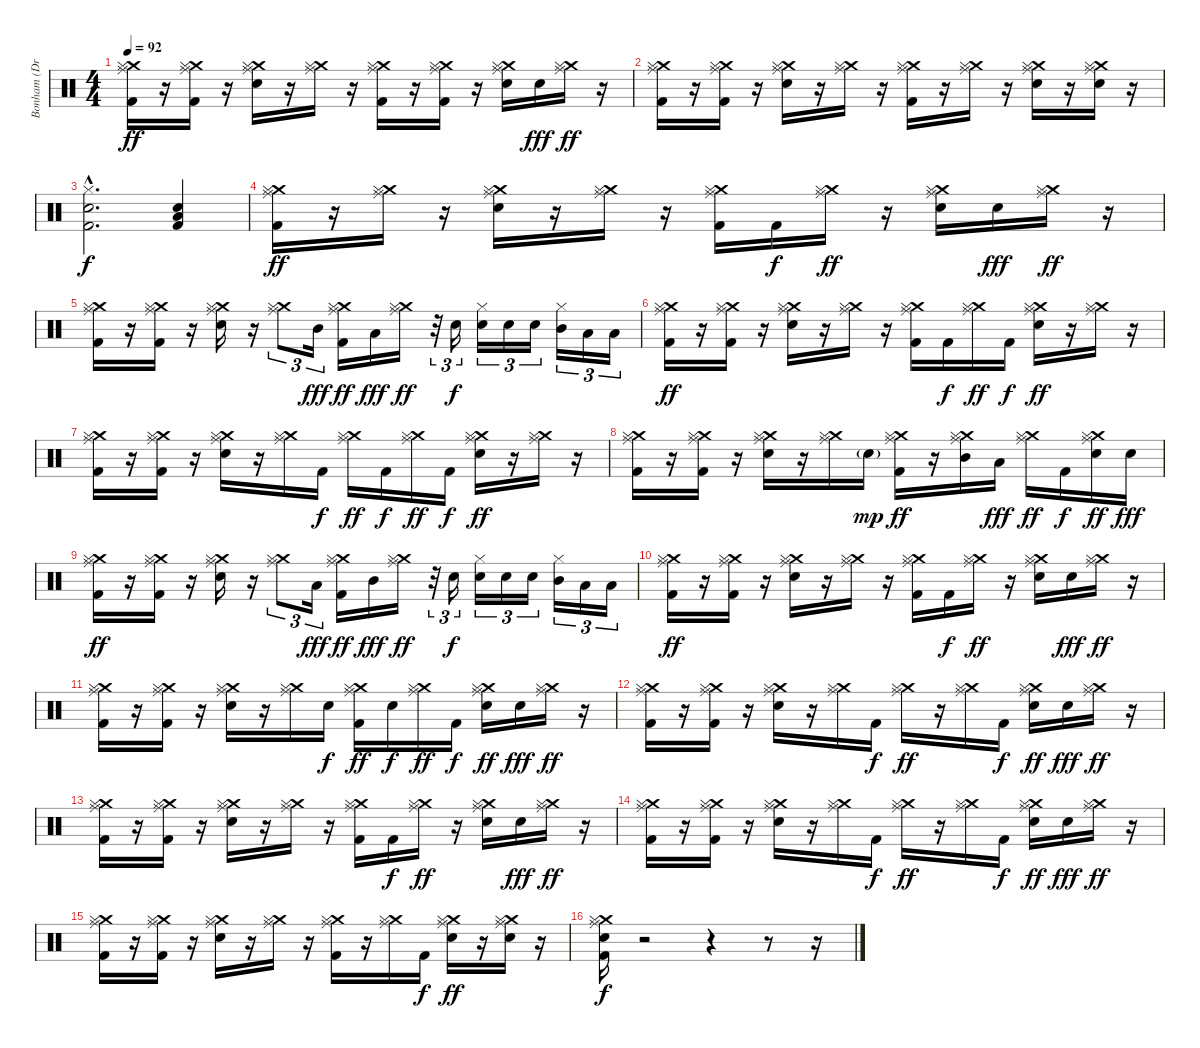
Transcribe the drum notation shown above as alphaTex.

\track ("Bonham (Drums)" "Bonham (Dr") {instrument percussion}
\staff {score}
\articulation defaults
\ts (4 4)
\tempo 92
\clef neutral
\ks c
("Crash medium (hit)" "Hi-Hat (closed)" "Ride (middle)" "Kick (hit) 2").16{dy ff} r.16 ("Crash medium (hit)" "Hi-Hat (closed)" "Ride (middle)" "Kick (hit) 2").16 r.16 ("Crash medium (hit)" "Hi-Hat (closed)" "Electric Snare (hit)" "Ride (middle)").16 r.16 ("Crash medium (hit)" "Hi-Hat (closed)" "Ride (middle)").16 r.16 ("Crash medium (hit)" "Hi-Hat (closed)" "Ride (middle)" "Kick (hit) 2").16 r.16 ("Crash medium (hit)" "Hi-Hat (closed)" "Ride (middle)" "Kick (hit) 2").16 r.16 ("Crash medium (hit)" "Hi-Hat (closed)" "Electric Snare (hit)" "Ride (middle)").16 "Electric Snare (hit)".16{dy fff} ("Crash medium (hit)" "Hi-Hat (closed)" "Ride (middle)").16{dy ff} r.16 |
("Crash medium (hit)" "Hi-Hat (closed)" "Ride (middle)" "Kick (hit) 2").16 r.16 ("Crash medium (hit)" "Hi-Hat (closed)" "Ride (middle)" "Kick (hit) 2").16 r.16 ("Crash medium (hit)" "Hi-Hat (closed)" "Electric Snare (hit)" "Ride (middle)").16 r.16 ("Crash medium (hit)" "Hi-Hat (closed)" "Ride (middle)").16 r.16 ("Crash medium (hit)" "Hi-Hat (closed)" "Ride (middle)" "Kick (hit) 2").16 r.16 ("Crash medium (hit)" "Hi-Hat (closed)" "Ride (middle)").16 r.16 ("Crash medium (hit)" "Hi-Hat (closed)" "Electric Snare (hit)" "Ride (middle)").16 r.16 ("Crash medium (hit)" "Hi-Hat (closed)" "Electric Snare (hit)" "Ride (middle)").16 r.16 |
("Hi-Hat (closed)"{hac} "Electric Snare (hit)"{hac} "Kick (hit) 2"{hac}).2{d dy f} ("Electric Snare (hit)" "Low Tom (hit)" "Kick (hit) 2").4 |
("Crash medium (hit)" "Hi-Hat (closed)" "Ride (middle)" "Kick (hit) 2").16{dy ff} r.16 ("Crash medium (hit)" "Hi-Hat (closed)" "Ride (middle)").16 r.16 ("Crash medium (hit)" "Hi-Hat (closed)" "Electric Snare (hit)" "Ride (middle)").16 r.16 ("Crash medium (hit)" "Hi-Hat (closed)" "Ride (middle)").16 r.16 ("Crash medium (hit)" "Hi-Hat (closed)" "Ride (middle)" "Kick (hit) 2").16 "Kick (hit) 2".16{dy f} ("Crash medium (hit)" "Hi-Hat (closed)" "Ride (middle)").16{dy ff} r.16 ("Crash medium (hit)" "Hi-Hat (closed)" "Electric Snare (hit)" "Ride (middle)").16 "Electric Snare (hit)".16{dy fff} ("Crash medium (hit)" "Hi-Hat (closed)" "Ride (middle)").16{dy ff} r.16 |
("Crash medium (hit)" "Hi-Hat (closed)" "Ride (middle)" "Kick (hit) 2").16 r.16 ("Crash medium (hit)" "Hi-Hat (closed)" "Ride (middle)" "Kick (hit) 2").16 r.16 ("Crash medium (hit)" "Hi-Hat (closed)" "Electric Snare (hit)" "Ride (middle)").16 r.16 ("Crash medium (hit)" "Hi-Hat (closed)" "Ride (middle)").8{tu (3 2)} "Mid Tom (hit)".16{tu (3 2) dy fff} ("Crash medium (hit)" "Hi-Hat (closed)" "Ride (middle)" "Kick (hit) 2").16{dy ff} "Low Tom (hit)".16{dy fff} ("Crash medium (hit)" "Hi-Hat (closed)" "Ride (middle)").16{dy ff} r.32{tu (3 2)} "Electric Snare (hit)".16{tu (3 2) dy f} ("Hi-Hat (closed)" "Electric Snare (hit)").16{tu (3 2)} "Electric Snare (hit)".16{tu (3 2)} "Electric Snare (hit)".16{tu (3 2)} ("Hi-Hat (closed)" "Mid Tom (hit)").16{tu (3 2)} "Low Tom (hit)".16{tu (3 2)} "Low Floor Tom (hit)".16{tu (3 2)} |
("Crash medium (hit)" "Hi-Hat (closed)" "Ride (middle)" "Kick (hit) 2").16{dy ff} r.16 ("Crash medium (hit)" "Hi-Hat (closed)" "Ride (middle)" "Kick (hit) 2").16 r.16 ("Crash medium (hit)" "Hi-Hat (closed)" "Electric Snare (hit)" "Ride (middle)").16 r.16 ("Crash medium (hit)" "Hi-Hat (closed)" "Ride (middle)").16 r.16 ("Crash medium (hit)" "Hi-Hat (closed)" "Ride (middle)" "Kick (hit) 2").16 "Kick (hit) 2".16{dy f} ("Crash medium (hit)" "Hi-Hat (closed)" "Ride (middle)").16{dy ff} "Kick (hit) 2".16{dy f} ("Crash medium (hit)" "Hi-Hat (closed)" "Electric Snare (hit)" "Ride (middle)").16{dy ff} r.16 ("Crash medium (hit)" "Hi-Hat (closed)" "Ride (middle)").16 r.16 |
("Crash medium (hit)" "Hi-Hat (closed)" "Ride (middle)" "Kick (hit) 2").16 r.16 ("Crash medium (hit)" "Hi-Hat (closed)" "Ride (middle)" "Kick (hit) 2").16 r.16 ("Crash medium (hit)" "Hi-Hat (closed)" "Electric Snare (hit)" "Ride (middle)").16 r.16 ("Crash medium (hit)" "Hi-Hat (closed)" "Ride (middle)").16 "Kick (hit) 2".16{dy f} ("Crash medium (hit)" "Hi-Hat (closed)" "Ride (middle)").16{dy ff} "Kick (hit) 2".16{dy f} ("Crash medium (hit)" "Hi-Hat (closed)" "Ride (middle)").16{dy ff} "Kick (hit) 2".16{dy f} ("Crash medium (hit)" "Hi-Hat (closed)" "Electric Snare (hit)" "Ride (middle)").16{dy ff} r.16 ("Crash medium (hit)" "Hi-Hat (closed)" "Ride (middle)").16 r.16 |
("Crash medium (hit)" "Hi-Hat (closed)" "Ride (middle)" "Kick (hit) 2").16 r.16 ("Crash medium (hit)" "Hi-Hat (closed)" "Ride (middle)" "Kick (hit) 2").16 r.16 ("Crash medium (hit)" "Hi-Hat (closed)" "Electric Snare (hit)" "Ride (middle)").16 r.16 ("Crash medium (hit)" "Hi-Hat (closed)" "Ride (middle)").16 "Electric Snare (hit)"{g}.16{dy mp} ("Crash medium (hit)" "Hi-Hat (closed)" "Ride (middle)" "Kick (hit) 2").16{dy ff} r.16 ("Crash medium (hit)" "Hi-Hat (closed)" "Mid Tom (hit)" "Ride (middle)").16 "Low Tom (hit)".16{dy fff} ("Crash medium (hit)" "Hi-Hat (closed)" "Ride (middle)").16{dy ff} "Kick (hit) 2".16{dy f} ("Crash medium (hit)" "Hi-Hat (closed)" "Electric Snare (hit)" "Ride (middle)").16{dy ff} "Electric Snare (hit)".16{dy fff} |
("Crash medium (hit)" "Hi-Hat (closed)" "Ride (middle)" "Kick (hit) 2").16{dy ff} r.16 ("Crash medium (hit)" "Hi-Hat (closed)" "Ride (middle)" "Kick (hit) 2").16 r.16 ("Crash medium (hit)" "Hi-Hat (closed)" "Electric Snare (hit)" "Ride (middle)").16 r.16 ("Crash medium (hit)" "Hi-Hat (closed)" "Ride (middle)").8{tu (3 2)} "Low Tom (hit)".16{tu (3 2) dy fff} ("Crash medium (hit)" "Hi-Hat (closed)" "Ride (middle)" "Kick (hit) 2").16{dy ff} "Mid Tom (hit)".16{dy fff} ("Crash medium (hit)" "Hi-Hat (closed)" "Ride (middle)").16{dy ff} r.32{tu (3 2)} "Electric Snare (hit)".16{tu (3 2) dy f} ("Hi-Hat (closed)" "Electric Snare (hit)").16{tu (3 2)} "Electric Snare (hit)".16{tu (3 2)} "Electric Snare (hit)".16{tu (3 2)} ("Hi-Hat (closed)" "Mid Tom (hit)").16{tu (3 2)} "Low Tom (hit)".16{tu (3 2)} "Low Floor Tom (hit)".16{tu (3 2)} |
("Crash medium (hit)" "Hi-Hat (closed)" "Ride (middle)" "Kick (hit) 2").16{dy ff} r.16 ("Crash medium (hit)" "Hi-Hat (closed)" "Ride (middle)" "Kick (hit) 2").16 r.16 ("Crash medium (hit)" "Hi-Hat (closed)" "Electric Snare (hit)" "Ride (middle)").16 r.16 ("Crash medium (hit)" "Hi-Hat (closed)" "Ride (middle)").16 r.16 ("Crash medium (hit)" "Hi-Hat (closed)" "Ride (middle)" "Kick (hit) 2").16 "Kick (hit) 2".16{dy f} ("Crash medium (hit)" "Hi-Hat (closed)" "Ride (middle)").16{dy ff} r.16 ("Crash medium (hit)" "Hi-Hat (closed)" "Electric Snare (hit)" "Ride (middle)").16 "Electric Snare (hit)".16{dy fff} ("Crash medium (hit)" "Hi-Hat (closed)" "Ride (middle)").16{dy ff} r.16 |
("Crash medium (hit)" "Hi-Hat (closed)" "Ride (middle)" "Kick (hit) 2").16 r.16 ("Crash medium (hit)" "Hi-Hat (closed)" "Ride (middle)" "Kick (hit) 2").16 r.16 ("Crash medium (hit)" "Hi-Hat (closed)" "Electric Snare (hit)" "Ride (middle)").16 r.16 ("Crash medium (hit)" "Hi-Hat (closed)" "Ride (middle)").16 "Electric Snare (hit)".16{dy f} ("Crash medium (hit)" "Hi-Hat (closed)" "Ride (middle)" "Kick (hit) 2").16{dy ff} "Electric Snare (hit)".16{dy f} ("Crash medium (hit)" "Hi-Hat (closed)" "Ride (middle)").16{dy ff} "Kick (hit) 2".16{dy f} ("Crash medium (hit)" "Hi-Hat (closed)" "Electric Snare (hit)" "Ride (middle)").16{dy ff} "Electric Snare (hit)".16{dy fff} ("Crash medium (hit)" "Hi-Hat (closed)" "Ride (middle)").16{dy ff} r.16 |
("Crash medium (hit)" "Hi-Hat (closed)" "Ride (middle)" "Kick (hit) 2").16 r.16 ("Crash medium (hit)" "Hi-Hat (closed)" "Ride (middle)" "Kick (hit) 2").16 r.16 ("Crash medium (hit)" "Hi-Hat (closed)" "Electric Snare (hit)" "Ride (middle)").16 r.16 ("Crash medium (hit)" "Hi-Hat (closed)" "Ride (middle)").16 "Kick (hit) 2".16{dy f} ("Crash medium (hit)" "Hi-Hat (closed)" "Ride (middle)").16{dy ff} r.16 ("Crash medium (hit)" "Hi-Hat (closed)" "Ride (middle)").16 "Kick (hit) 2".16{dy f} ("Crash medium (hit)" "Hi-Hat (closed)" "Electric Snare (hit)" "Ride (middle)").16{dy ff} "Electric Snare (hit)".16{dy fff} ("Crash medium (hit)" "Hi-Hat (closed)" "Ride (middle)").16{dy ff} r.16 |
("Crash medium (hit)" "Hi-Hat (closed)" "Ride (middle)" "Kick (hit) 2").16 r.16 ("Crash medium (hit)" "Hi-Hat (closed)" "Ride (middle)" "Kick (hit) 2").16 r.16 ("Crash medium (hit)" "Hi-Hat (closed)" "Electric Snare (hit)" "Ride (middle)").16 r.16 ("Crash medium (hit)" "Hi-Hat (closed)" "Ride (middle)").16 r.16 ("Crash medium (hit)" "Hi-Hat (closed)" "Ride (middle)" "Kick (hit) 2").16 "Kick (hit) 2".16{dy f} ("Crash medium (hit)" "Hi-Hat (closed)" "Ride (middle)").16{dy ff} r.16 ("Crash medium (hit)" "Hi-Hat (closed)" "Electric Snare (hit)" "Ride (middle)").16 "Electric Snare (hit)".16{dy fff} ("Crash medium (hit)" "Hi-Hat (closed)" "Ride (middle)").16{dy ff} r.16 |
("Crash medium (hit)" "Hi-Hat (closed)" "Ride (middle)" "Kick (hit) 2").16 r.16 ("Crash medium (hit)" "Hi-Hat (closed)" "Ride (middle)" "Kick (hit) 2").16 r.16 ("Crash medium (hit)" "Hi-Hat (closed)" "Electric Snare (hit)" "Ride (middle)").16 r.16 ("Crash medium (hit)" "Hi-Hat (closed)" "Ride (middle)").16 "Kick (hit) 2".16{dy f} ("Crash medium (hit)" "Hi-Hat (closed)" "Ride (middle)").16{dy ff} r.16 ("Crash medium (hit)" "Hi-Hat (closed)" "Ride (middle)").16 "Kick (hit) 2".16{dy f} ("Crash medium (hit)" "Hi-Hat (closed)" "Electric Snare (hit)" "Ride (middle)").16{dy ff} "Electric Snare (hit)".16{dy fff} ("Crash medium (hit)" "Hi-Hat (closed)" "Ride (middle)").16{dy ff} r.16 |
("Crash medium (hit)" "Hi-Hat (closed)" "Ride (middle)" "Kick (hit) 2").16 r.16 ("Crash medium (hit)" "Hi-Hat (closed)" "Ride (middle)" "Kick (hit) 2").16 r.16 ("Crash medium (hit)" "Hi-Hat (closed)" "Electric Snare (hit)" "Ride (middle)").16 r.16 ("Crash medium (hit)" "Hi-Hat (closed)" "Ride (middle)").16 r.16 ("Crash medium (hit)" "Hi-Hat (closed)" "Ride (middle)" "Kick (hit) 2").16 r.16 ("Crash medium (hit)" "Hi-Hat (closed)" "Ride (middle)").16 "Kick (hit) 2".16{dy f} ("Crash medium (hit)" "Hi-Hat (closed)" "Electric Snare (hit)" "Ride (middle)").16{dy ff} r.16 ("Crash medium (hit)" "Hi-Hat (closed)" "Electric Snare (hit)" "Ride (middle)").16 r.16 |
("Crash medium (hit)" "Hi-Hat (closed)" "Electric Snare (hit)" "Ride (middle)" "Kick (hit) 2").16{dy f} r.2 r.4 r.8 r.16
